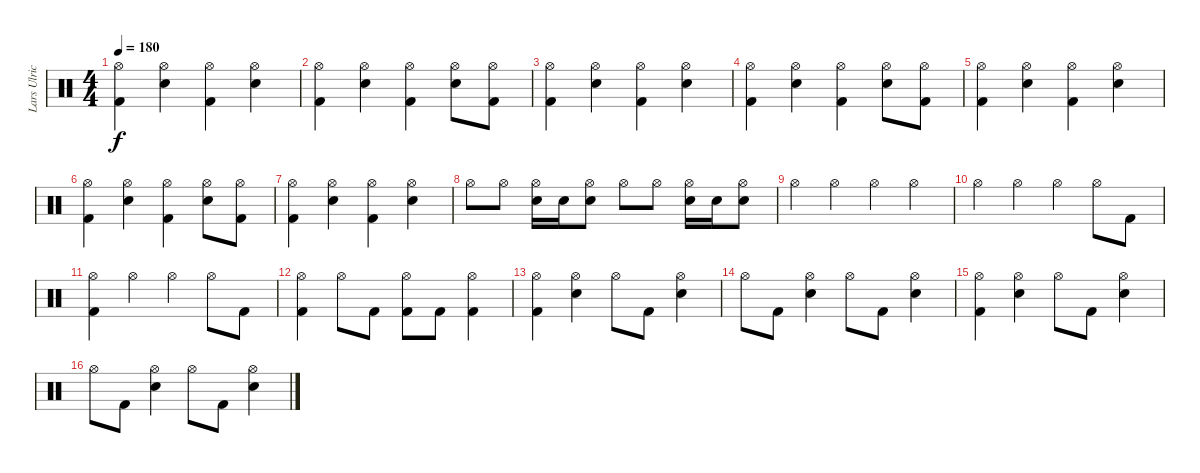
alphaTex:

\track ("Lars Ulrich" "Lars Ulric") {instrument percussion}
\staff {score}
\articulation defaults
\ts (4 4)
\tempo 180
\clef neutral
\ks c
("Hi-Hat (open)" "Kick (hit) 2").4{dy f} ("Hi-Hat (open)" "Electric Snare (hit)").4 ("Hi-Hat (open)" "Kick (hit) 2").4 ("Hi-Hat (open)" "Electric Snare (hit)").4 |
("Hi-Hat (open)" "Kick (hit) 2").4 ("Hi-Hat (open)" "Electric Snare (hit)").4 ("Hi-Hat (open)" "Kick (hit) 2").4 ("Hi-Hat (open)" "Electric Snare (hit)").8 ("Hi-Hat (open)" "Kick (hit) 2").8 |
("Hi-Hat (open)" "Kick (hit) 2").4 ("Hi-Hat (open)" "Electric Snare (hit)").4 ("Hi-Hat (open)" "Kick (hit) 2").4 ("Hi-Hat (open)" "Electric Snare (hit)").4 |
("Hi-Hat (open)" "Kick (hit) 2").4 ("Hi-Hat (open)" "Electric Snare (hit)").4 ("Hi-Hat (open)" "Kick (hit) 2").4 ("Hi-Hat (open)" "Electric Snare (hit)").8 ("Hi-Hat (open)" "Kick (hit) 2").8 |
("Hi-Hat (open)" "Kick (hit) 2").4 ("Hi-Hat (open)" "Electric Snare (hit)").4 ("Hi-Hat (open)" "Kick (hit) 2").4 ("Hi-Hat (open)" "Electric Snare (hit)").4 |
("Hi-Hat (open)" "Kick (hit) 2").4 ("Hi-Hat (open)" "Electric Snare (hit)").4 ("Hi-Hat (open)" "Kick (hit) 2").4 ("Hi-Hat (open)" "Electric Snare (hit)").8 ("Hi-Hat (open)" "Kick (hit) 2").8 |
("Hi-Hat (open)" "Kick (hit) 2").4 ("Hi-Hat (open)" "Electric Snare (hit)").4 ("Hi-Hat (open)" "Kick (hit) 2").4 ("Hi-Hat (open)" "Electric Snare (hit)").4 |
"Hi-Hat (open)".8 "Hi-Hat (open)".8 ("Hi-Hat (open)" "Electric Snare (hit)").16 "Electric Snare (hit)".16 ("Hi-Hat (open)" "Electric Snare (hit)").8 "Hi-Hat (open)".8 "Hi-Hat (open)".8 ("Hi-Hat (open)" "Electric Snare (hit)").16 "Electric Snare (hit)".16 ("Hi-Hat (open)" "Electric Snare (hit)").8 |
"Hi-Hat (open)".4 "Hi-Hat (open)".4 "Hi-Hat (open)".4 "Hi-Hat (open)".4 |
"Hi-Hat (open)".4 "Hi-Hat (open)".4 "Hi-Hat (open)".4 "Hi-Hat (open)".8 "Kick (hit) 2".8 |
("Hi-Hat (open)" "Kick (hit) 2").4 "Hi-Hat (open)".4 "Hi-Hat (open)".4 "Hi-Hat (open)".8 "Kick (hit) 2".8 |
("Hi-Hat (open)" "Kick (hit) 2").4 "Hi-Hat (open)".8 "Kick (hit) 2".8 ("Hi-Hat (open)" "Kick (hit) 2").8 "Kick (hit) 2".8 ("Hi-Hat (open)" "Kick (hit) 2").4 |
("Hi-Hat (open)" "Kick (hit) 2").4 ("Hi-Hat (open)" "Electric Snare (hit)").4 "Hi-Hat (open)".8 "Kick (hit) 2".8 ("Hi-Hat (open)" "Electric Snare (hit)").4 |
"Hi-Hat (open)".8 "Kick (hit) 2".8 ("Hi-Hat (open)" "Electric Snare (hit)").4 "Hi-Hat (open)".8 "Kick (hit) 2".8 ("Hi-Hat (open)" "Electric Snare (hit)").4 |
("Hi-Hat (open)" "Kick (hit) 2").4 ("Hi-Hat (open)" "Electric Snare (hit)").4 "Hi-Hat (open)".8 "Kick (hit) 2".8 ("Hi-Hat (open)" "Electric Snare (hit)").4 |
"Hi-Hat (open)".8 "Kick (hit) 2".8 ("Hi-Hat (open)" "Electric Snare (hit)").4 "Hi-Hat (open)".8 "Kick (hit) 2".8 ("Hi-Hat (open)" "Electric Snare (hit)").4
